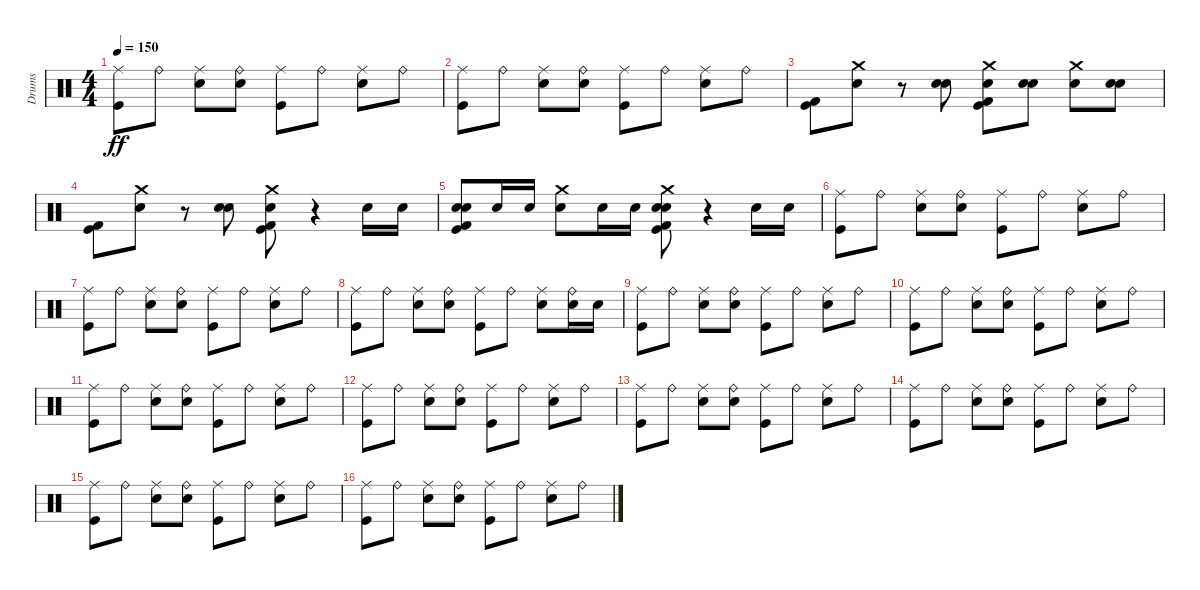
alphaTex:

\track ("Drums" "Drums") {instrument percussion}
\staff {score}
\articulation defaults
\ts (4 4)
\tempo 150
\clef neutral
\ks c
("Kick (hit)" "Ride (middle)").8{dy ff} "Ride (bell)".8 ("Snare (hit) 2" "Ride (middle)").8 ("Snare (hit) 2" "Ride (bell)").8 ("Kick (hit)" "Ride (middle)").8 "Ride (bell)".8 ("Snare (hit) 2" "Ride (middle)").8 "Ride (bell)".8 |
("Kick (hit)" "Ride (middle)").8 "Ride (bell)".8 ("Snare (hit) 2" "Ride (middle)").8 ("Snare (hit) 2" "Ride (bell)").8 ("Kick (hit)" "Ride (middle)").8 "Ride (bell)".8 ("Snare (hit) 2" "Ride (middle)").8 "Ride (bell)".8 |
("Kick (hit)" "Kick (hit) 2").8 ("Electric Snare (hit)" "Crash medium (hit)").8 r.8 ("Snare (hit) 2" "Electric Snare (hit)").8 ("Kick (hit)" "Kick (hit) 2" "Electric Snare (hit)" "Crash medium (hit)").8 ("Snare (hit) 2" "Electric Snare (hit)").8 ("Electric Snare (hit)" "Crash medium (hit)").8 ("Snare (hit) 2" "Electric Snare (hit)").8 |
("Kick (hit)" "Kick (hit) 2").8 ("Electric Snare (hit)" "Crash medium (hit)").8 r.8 ("Snare (hit) 2" "Electric Snare (hit)").8 ("Kick (hit)" "Kick (hit) 2" "Electric Snare (hit)" "Crash medium (hit)").8 r.4 "Electric Snare (hit)".16 "Electric Snare (hit)".16 |
("Kick (hit)" "Kick (hit) 2" "Snare (hit) 2" "Electric Snare (hit)").8 "Electric Snare (hit)".16 "Electric Snare (hit)".16 ("Electric Snare (hit)" "Crash medium (hit)").8 "Electric Snare (hit)".16 "Electric Snare (hit)".16 ("Kick (hit)" "Kick (hit) 2" "Snare (hit) 2" "Electric Snare (hit)" "Crash medium (hit)").8 r.4 "Electric Snare (hit)".16 "Electric Snare (hit)".16 |
("Kick (hit)" "Ride (middle)").8 "Ride (bell)".8 ("Snare (hit) 2" "Ride (middle)").8 ("Snare (hit) 2" "Ride (bell)").8 ("Kick (hit)" "Ride (middle)").8 "Ride (bell)".8 ("Snare (hit) 2" "Ride (middle)").8 "Ride (bell)".8 |
("Kick (hit)" "Ride (middle)").8 "Ride (bell)".8 ("Snare (hit) 2" "Ride (middle)").8 ("Snare (hit) 2" "Ride (bell)").8 ("Kick (hit)" "Ride (middle)").8 "Ride (bell)".8 ("Snare (hit) 2" "Ride (middle)").8 "Ride (bell)".8 |
("Kick (hit)" "Ride (middle)").8 "Ride (bell)".8 ("Snare (hit) 2" "Ride (middle)").8 ("Snare (hit) 2" "Ride (bell)").8 ("Kick (hit)" "Ride (middle)").8 "Ride (bell)".8 ("Snare (hit) 2" "Ride (middle)").8 ("Electric Snare (hit)" "Ride (bell)").16 "Electric Snare (hit)".16 |
("Kick (hit)" "Ride (middle)").8 "Ride (bell)".8 ("Snare (hit) 2" "Ride (middle)").8 ("Snare (hit) 2" "Ride (bell)").8 ("Kick (hit)" "Ride (middle)").8 "Ride (bell)".8 ("Snare (hit) 2" "Ride (middle)").8 "Ride (bell)".8 |
("Kick (hit)" "Ride (middle)").8 "Ride (bell)".8 ("Snare (hit) 2" "Ride (middle)").8 ("Snare (hit) 2" "Ride (bell)").8 ("Kick (hit)" "Ride (middle)").8 "Ride (bell)".8 ("Snare (hit) 2" "Ride (middle)").8 "Ride (bell)".8 |
("Kick (hit)" "Ride (middle)").8 "Ride (bell)".8 ("Snare (hit) 2" "Ride (middle)").8 ("Snare (hit) 2" "Ride (bell)").8 ("Kick (hit)" "Ride (middle)").8 "Ride (bell)".8 ("Snare (hit) 2" "Ride (middle)").8 "Ride (bell)".8 |
("Kick (hit)" "Ride (middle)").8 "Ride (bell)".8 ("Snare (hit) 2" "Ride (middle)").8 ("Snare (hit) 2" "Ride (bell)").8 ("Kick (hit)" "Ride (middle)").8 "Ride (bell)".8 ("Snare (hit) 2" "Ride (middle)").8 "Ride (bell)".8 |
("Kick (hit)" "Ride (middle)").8 "Ride (bell)".8 ("Snare (hit) 2" "Ride (middle)").8 ("Snare (hit) 2" "Ride (bell)").8 ("Kick (hit)" "Ride (middle)").8 "Ride (bell)".8 ("Snare (hit) 2" "Ride (middle)").8 "Ride (bell)".8 |
("Kick (hit)" "Ride (middle)").8 "Ride (bell)".8 ("Snare (hit) 2" "Ride (middle)").8 ("Snare (hit) 2" "Ride (bell)").8 ("Kick (hit)" "Ride (middle)").8 "Ride (bell)".8 ("Snare (hit) 2" "Ride (middle)").8 "Ride (bell)".8 |
("Kick (hit)" "Ride (middle)").8 "Ride (bell)".8 ("Snare (hit) 2" "Ride (middle)").8 ("Snare (hit) 2" "Ride (bell)").8 ("Kick (hit)" "Ride (middle)").8 "Ride (bell)".8 ("Snare (hit) 2" "Ride (middle)").8 "Ride (bell)".8 |
("Kick (hit)" "Ride (middle)").8 "Ride (bell)".8 ("Snare (hit) 2" "Ride (middle)").8 ("Snare (hit) 2" "Ride (bell)").8 ("Kick (hit)" "Ride (middle)").8 "Ride (bell)".8 ("Snare (hit) 2" "Ride (middle)").8 "Ride (bell)".8
